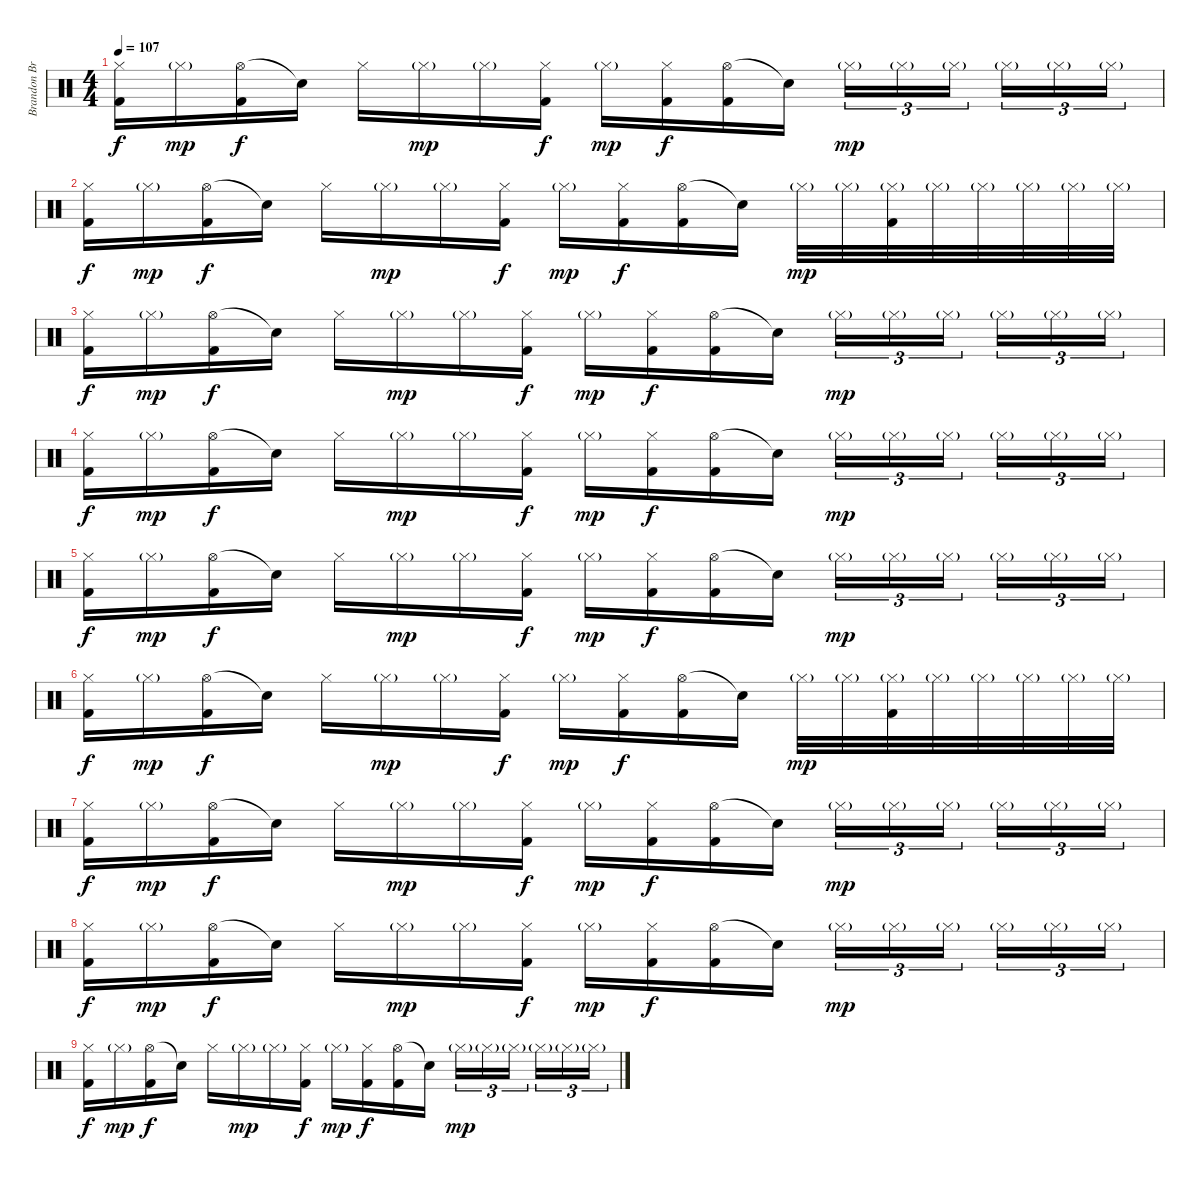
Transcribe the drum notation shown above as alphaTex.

\track ("Brandon Brown (Drums)" "Brandon Br") {instrument percussion}
\staff {score}
\articulation defaults
\ts (4 4)
\tempo 107
\clef neutral
\ks c
("Hi-Hat (closed)" "Kick (hit) 2").16{dy f} "Hi-Hat (closed)"{g}.16{dy mp} ("Hi-Hat (open)" "Kick (hit) 2").16{dy f} "Snare (hit)"{t}.16 "Hi-Hat (closed)".16 "Hi-Hat (closed)"{g}.16{dy mp} "Hi-Hat (closed)"{g}.16 ("Hi-Hat (closed)" "Kick (hit) 2").16{dy f} "Hi-Hat (closed)"{g}.16{dy mp} ("Hi-Hat (closed)" "Kick (hit) 2").16{dy f} ("Hi-Hat (open)" "Kick (hit) 2").16 "Snare (hit)"{t}.16 "Hi-Hat (closed)"{g}.16{tu (3 2) dy mp} "Hi-Hat (closed)"{g}.16{tu (3 2)} "Hi-Hat (closed)"{g}.16{tu (3 2)} "Hi-Hat (closed)"{g}.16{tu (3 2)} "Hi-Hat (closed)"{g}.16{tu (3 2)} "Hi-Hat (closed)"{g}.16{tu (3 2)} |
("Hi-Hat (closed)" "Kick (hit) 2").16{dy f volume 9} "Hi-Hat (closed)"{g}.16{dy mp} ("Hi-Hat (open)" "Kick (hit) 2").16{dy f} "Snare (hit)"{t}.16 "Hi-Hat (closed)".16 "Hi-Hat (closed)"{g}.16{dy mp} "Hi-Hat (closed)"{g}.16 ("Hi-Hat (closed)" "Kick (hit) 2").16{dy f} "Hi-Hat (closed)"{g}.16{dy mp} ("Hi-Hat (closed)" "Kick (hit) 2").16{dy f} ("Hi-Hat (open)" "Kick (hit) 2").16 "Snare (hit)"{t}.16 "Hi-Hat (closed)"{g}.32{dy mp} "Hi-Hat (closed)"{g}.32 ("Hi-Hat (closed)"{g} "Kick (hit) 2").32 "Hi-Hat (closed)"{g}.32 "Hi-Hat (closed)"{g}.32 "Hi-Hat (closed)"{g}.32 "Hi-Hat (closed)"{g}.32 "Hi-Hat (closed)"{g}.32 |
("Hi-Hat (closed)" "Kick (hit) 2").16{dy f} "Hi-Hat (closed)"{g}.16{dy mp} ("Hi-Hat (open)" "Kick (hit) 2").16{dy f} "Snare (hit)"{t}.16 "Hi-Hat (closed)".16 "Hi-Hat (closed)"{g}.16{dy mp} "Hi-Hat (closed)"{g}.16 ("Hi-Hat (closed)" "Kick (hit) 2").16{dy f} "Hi-Hat (closed)"{g}.16{dy mp} ("Hi-Hat (closed)" "Kick (hit) 2").16{dy f} ("Hi-Hat (open)" "Kick (hit) 2").16 "Snare (hit)"{t}.16 "Hi-Hat (closed)"{g}.16{tu (3 2) dy mp} "Hi-Hat (closed)"{g}.16{tu (3 2)} "Hi-Hat (closed)"{g}.16{tu (3 2)} "Hi-Hat (closed)"{g}.16{tu (3 2)} "Hi-Hat (closed)"{g}.16{tu (3 2)} "Hi-Hat (closed)"{g}.16{tu (3 2)} |
("Hi-Hat (closed)" "Kick (hit) 2").16{dy f volume 6} "Hi-Hat (closed)"{g}.16{dy mp} ("Hi-Hat (open)" "Kick (hit) 2").16{dy f} "Snare (hit)"{t}.16 "Hi-Hat (closed)".16 "Hi-Hat (closed)"{g}.16{dy mp} "Hi-Hat (closed)"{g}.16 ("Hi-Hat (closed)" "Kick (hit) 2").16{dy f} "Hi-Hat (closed)"{g}.16{dy mp} ("Hi-Hat (closed)" "Kick (hit) 2").16{dy f} ("Hi-Hat (open)" "Kick (hit) 2").16 "Snare (hit)"{t}.16 "Hi-Hat (closed)"{g}.16{tu (3 2) dy mp} "Hi-Hat (closed)"{g}.16{tu (3 2)} "Hi-Hat (closed)"{g}.16{tu (3 2)} "Hi-Hat (closed)"{g}.16{tu (3 2)} "Hi-Hat (closed)"{g}.16{tu (3 2)} "Hi-Hat (closed)"{g}.16{tu (3 2)} |
("Hi-Hat (closed)" "Kick (hit) 2").16{dy f} "Hi-Hat (closed)"{g}.16{dy mp} ("Hi-Hat (open)" "Kick (hit) 2").16{dy f} "Snare (hit)"{t}.16 "Hi-Hat (closed)".16 "Hi-Hat (closed)"{g}.16{dy mp} "Hi-Hat (closed)"{g}.16 ("Hi-Hat (closed)" "Kick (hit) 2").16{dy f} "Hi-Hat (closed)"{g}.16{dy mp} ("Hi-Hat (closed)" "Kick (hit) 2").16{dy f} ("Hi-Hat (open)" "Kick (hit) 2").16 "Snare (hit)"{t}.16 "Hi-Hat (closed)"{g}.16{tu (3 2) dy mp} "Hi-Hat (closed)"{g}.16{tu (3 2)} "Hi-Hat (closed)"{g}.16{tu (3 2)} "Hi-Hat (closed)"{g}.16{tu (3 2)} "Hi-Hat (closed)"{g}.16{tu (3 2)} "Hi-Hat (closed)"{g}.16{tu (3 2)} |
("Hi-Hat (closed)" "Kick (hit) 2").16{dy f volume 3} "Hi-Hat (closed)"{g}.16{dy mp} ("Hi-Hat (open)" "Kick (hit) 2").16{dy f} "Snare (hit)"{t}.16 "Hi-Hat (closed)".16 "Hi-Hat (closed)"{g}.16{dy mp} "Hi-Hat (closed)"{g}.16 ("Hi-Hat (closed)" "Kick (hit) 2").16{dy f} "Hi-Hat (closed)"{g}.16{dy mp} ("Hi-Hat (closed)" "Kick (hit) 2").16{dy f} ("Hi-Hat (open)" "Kick (hit) 2").16 "Snare (hit)"{t}.16 "Hi-Hat (closed)"{g}.32{dy mp} "Hi-Hat (closed)"{g}.32 ("Hi-Hat (closed)"{g} "Kick (hit) 2").32 "Hi-Hat (closed)"{g}.32 "Hi-Hat (closed)"{g}.32 "Hi-Hat (closed)"{g}.32 "Hi-Hat (closed)"{g}.32 "Hi-Hat (closed)"{g}.32 |
("Hi-Hat (closed)" "Kick (hit) 2").16{dy f} "Hi-Hat (closed)"{g}.16{dy mp} ("Hi-Hat (open)" "Kick (hit) 2").16{dy f} "Snare (hit)"{t}.16 "Hi-Hat (closed)".16 "Hi-Hat (closed)"{g}.16{dy mp} "Hi-Hat (closed)"{g}.16 ("Hi-Hat (closed)" "Kick (hit) 2").16{dy f} "Hi-Hat (closed)"{g}.16{dy mp} ("Hi-Hat (closed)" "Kick (hit) 2").16{dy f} ("Hi-Hat (open)" "Kick (hit) 2").16 "Snare (hit)"{t}.16 "Hi-Hat (closed)"{g}.16{tu (3 2) dy mp} "Hi-Hat (closed)"{g}.16{tu (3 2)} "Hi-Hat (closed)"{g}.16{tu (3 2)} "Hi-Hat (closed)"{g}.16{tu (3 2)} "Hi-Hat (closed)"{g}.16{tu (3 2)} "Hi-Hat (closed)"{g}.16{tu (3 2)} |
("Hi-Hat (closed)" "Kick (hit) 2").16{dy f volume 1} "Hi-Hat (closed)"{g}.16{dy mp} ("Hi-Hat (open)" "Kick (hit) 2").16{dy f} "Snare (hit)"{t}.16 "Hi-Hat (closed)".16 "Hi-Hat (closed)"{g}.16{dy mp} "Hi-Hat (closed)"{g}.16 ("Hi-Hat (closed)" "Kick (hit) 2").16{dy f} "Hi-Hat (closed)"{g}.16{dy mp} ("Hi-Hat (closed)" "Kick (hit) 2").16{dy f} ("Hi-Hat (open)" "Kick (hit) 2").16 "Snare (hit)"{t}.16 "Hi-Hat (closed)"{g}.16{tu (3 2) dy mp} "Hi-Hat (closed)"{g}.16{tu (3 2)} "Hi-Hat (closed)"{g}.16{tu (3 2)} "Hi-Hat (closed)"{g}.16{tu (3 2)} "Hi-Hat (closed)"{g}.16{tu (3 2)} "Hi-Hat (closed)"{g}.16{tu (3 2)} |
("Hi-Hat (closed)" "Kick (hit) 2").16{dy f} "Hi-Hat (closed)"{g}.16{dy mp} ("Hi-Hat (open)" "Kick (hit) 2").16{dy f} "Snare (hit)"{t}.16 "Hi-Hat (closed)".16 "Hi-Hat (closed)"{g}.16{dy mp} "Hi-Hat (closed)"{g}.16 ("Hi-Hat (closed)" "Kick (hit) 2").16{dy f} "Hi-Hat (closed)"{g}.16{dy mp} ("Hi-Hat (closed)" "Kick (hit) 2").16{dy f} ("Hi-Hat (open)" "Kick (hit) 2").16 "Snare (hit)"{t}.16 "Hi-Hat (closed)"{g}.16{tu (3 2) dy mp} "Hi-Hat (closed)"{g}.16{tu (3 2)} "Hi-Hat (closed)"{g}.16{tu (3 2)} "Hi-Hat (closed)"{g}.16{tu (3 2)} "Hi-Hat (closed)"{g}.16{tu (3 2)} "Hi-Hat (closed)"{g}.16{tu (3 2)}
